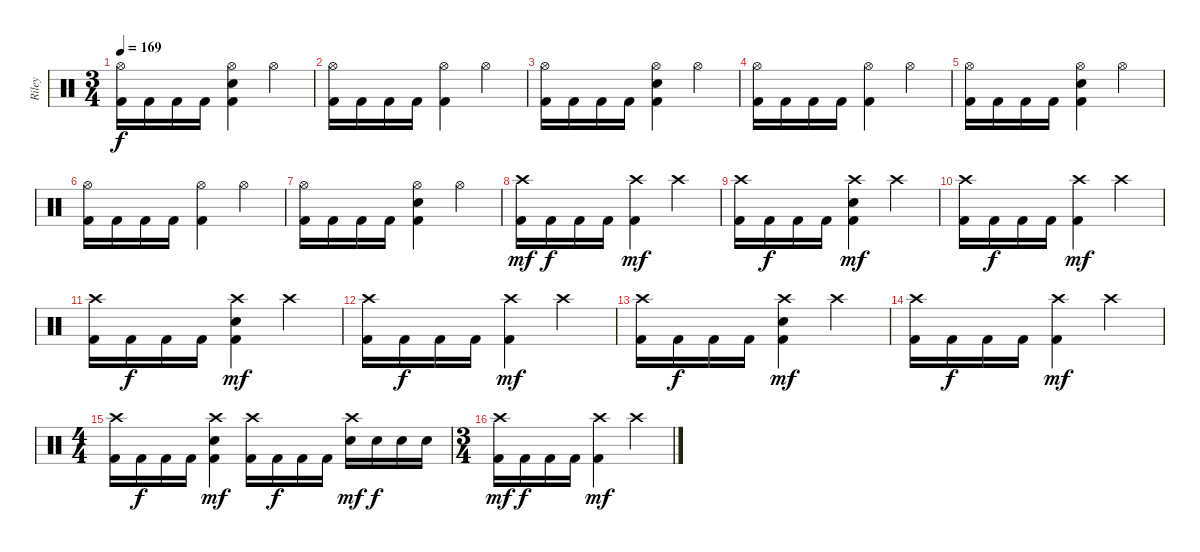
\track ("Riley" "Riley") {instrument percussion}
\staff {score}
\articulation defaults
\ts (3 4)
\tempo 169
\clef neutral
\ks c
("Hi-Hat (open)" "Kick (hit) 2").16{dy f} "Kick (hit) 2".16 "Kick (hit) 2".16 "Kick (hit) 2".16 ("Hi-Hat (open)" "Electric Snare (hit)" "Kick (hit) 2").4 "Hi-Hat (open)".4 |
("Hi-Hat (open)" "Kick (hit) 2").16 "Kick (hit) 2".16 "Kick (hit) 2".16 "Kick (hit) 2".16 ("Hi-Hat (open)" "Kick (hit) 2").4 "Hi-Hat (open)".4 |
("Hi-Hat (open)" "Kick (hit) 2").16 "Kick (hit) 2".16 "Kick (hit) 2".16 "Kick (hit) 2".16 ("Hi-Hat (open)" "Electric Snare (hit)" "Kick (hit) 2").4 "Hi-Hat (open)".4 |
("Hi-Hat (open)" "Kick (hit) 2").16 "Kick (hit) 2".16 "Kick (hit) 2".16 "Kick (hit) 2".16 ("Hi-Hat (open)" "Kick (hit) 2").4 "Hi-Hat (open)".4 |
("Hi-Hat (open)" "Kick (hit) 2").16 "Kick (hit) 2".16 "Kick (hit) 2".16 "Kick (hit) 2".16 ("Hi-Hat (open)" "Electric Snare (hit)" "Kick (hit) 2").4 "Hi-Hat (open)".4 |
("Hi-Hat (open)" "Kick (hit) 2").16 "Kick (hit) 2".16 "Kick (hit) 2".16 "Kick (hit) 2".16 ("Hi-Hat (open)" "Kick (hit) 2").4 "Hi-Hat (open)".4 |
("Hi-Hat (open)" "Kick (hit) 2").16 "Kick (hit) 2".16 "Kick (hit) 2".16 "Kick (hit) 2".16 ("Hi-Hat (open)" "Electric Snare (hit)" "Kick (hit) 2").4 "Hi-Hat (open)".4 |
("Crash high (hit)" "Kick (hit) 2").16{dy mf} "Kick (hit) 2".16{dy f} "Kick (hit) 2".16 "Kick (hit) 2".16 ("Crash high (hit)" "Kick (hit) 2").4{dy mf} "Crash high (hit)".4 |
("Crash high (hit)" "Kick (hit) 2").16 "Kick (hit) 2".16{dy f} "Kick (hit) 2".16 "Kick (hit) 2".16 ("Crash high (hit)" "Electric Snare (hit)" "Kick (hit) 2").4{dy mf} "Crash high (hit)".4 |
("Crash high (hit)" "Kick (hit) 2").16 "Kick (hit) 2".16{dy f} "Kick (hit) 2".16 "Kick (hit) 2".16 ("Crash high (hit)" "Kick (hit) 2").4{dy mf} "Crash high (hit)".4 |
("Crash high (hit)" "Kick (hit) 2").16 "Kick (hit) 2".16{dy f} "Kick (hit) 2".16 "Kick (hit) 2".16 ("Crash high (hit)" "Electric Snare (hit)" "Kick (hit) 2").4{dy mf} "Crash high (hit)".4 |
("Crash high (hit)" "Kick (hit) 2").16 "Kick (hit) 2".16{dy f} "Kick (hit) 2".16 "Kick (hit) 2".16 ("Crash high (hit)" "Kick (hit) 2").4{dy mf} "Crash high (hit)".4 |
("Crash high (hit)" "Kick (hit) 2").16 "Kick (hit) 2".16{dy f} "Kick (hit) 2".16 "Kick (hit) 2".16 ("Crash high (hit)" "Electric Snare (hit)" "Kick (hit) 2").4{dy mf} "Crash high (hit)".4 |
("Crash high (hit)" "Kick (hit) 2").16 "Kick (hit) 2".16{dy f} "Kick (hit) 2".16 "Kick (hit) 2".16 ("Crash high (hit)" "Kick (hit) 2").4{dy mf} "Crash high (hit)".4 |
\ts (4 4)
("Crash high (hit)" "Kick (hit) 2").16 "Kick (hit) 2".16{dy f} "Kick (hit) 2".16 "Kick (hit) 2".16 ("Crash high (hit)" "Electric Snare (hit)" "Kick (hit) 2").4{dy mf} ("Crash high (hit)" "Kick (hit) 2").16 "Kick (hit) 2".16{dy f} "Kick (hit) 2".16 "Kick (hit) 2".16 ("Crash high (hit)" "Electric Snare (hit)").16{dy mf} "Electric Snare (hit)".16{dy f} "Electric Snare (hit)".16 "Electric Snare (hit)".16 |
\ts (3 4)
("Crash high (hit)" "Kick (hit) 2").16{dy mf} "Kick (hit) 2".16{dy f} "Kick (hit) 2".16 "Kick (hit) 2".16 ("Crash high (hit)" "Kick (hit) 2").4{dy mf} "Crash high (hit)".4
